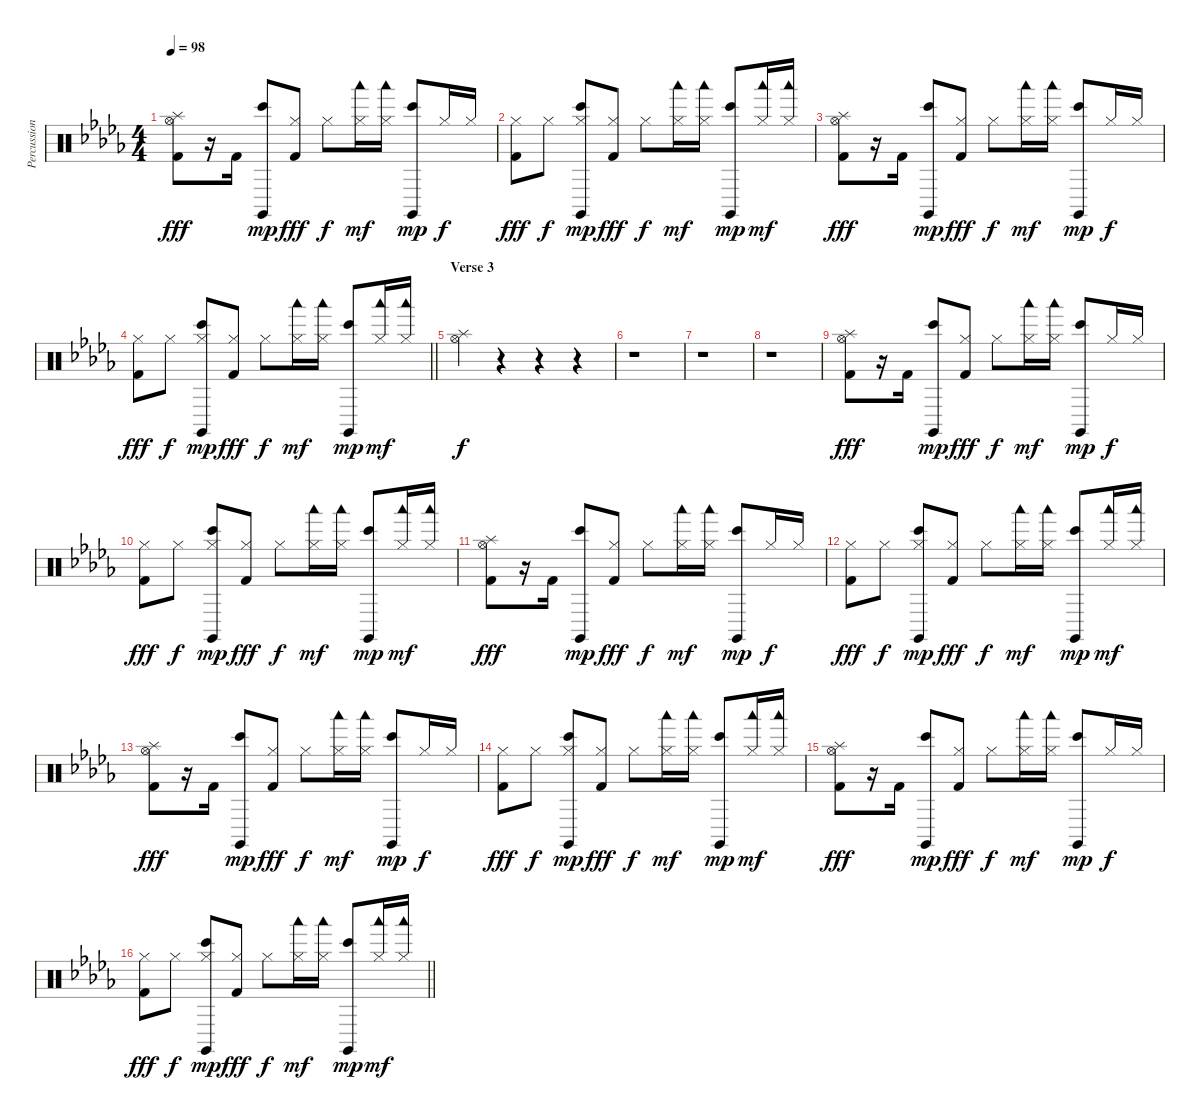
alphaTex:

\track ("Percussion" "Percussion") {instrument percussion}
\staff {score}
\articulation defaults
\ts (4 4)
\tempo 98
\clef neutral
\ks db
("Splash (hit)" "Hi-Hat (open)" "Kick (hit) 2").8{dy fff} r.16 "Kick (hit) 2".16 ("Claves (hit)" "Bongo High (hit)").8{dy mp} ("Hi-Hat (closed)" "Kick (hit) 2").8{dy fff} "Hi-Hat (closed)".8{dy f} ("Hi-Hat (closed)" "Woodblock low (hit)").16{dy mf} ("Hi-Hat (closed)" "Woodblock low (hit)").16 ("Claves (hit)" "Bongo High (hit)").8{dy mp} "Hi-Hat (closed)".16{dy f} "Hi-Hat (closed)".16 |
("Hi-Hat (closed)" "Kick (hit) 2").8{dy fff} "Hi-Hat (closed)".8{dy f} ("Hi-Hat (closed)" "Claves (hit)" "Bongo High (hit)").8{dy mp} ("Hi-Hat (closed)" "Kick (hit) 2").8{dy fff} "Hi-Hat (closed)".8{dy f} ("Hi-Hat (closed)" "Woodblock low (hit)").16{dy mf} ("Hi-Hat (closed)" "Woodblock low (hit)").16 ("Claves (hit)" "Bongo High (hit)").8{dy mp} ("Hi-Hat (closed)" "Woodblock low (hit)").16{dy mf} ("Hi-Hat (closed)" "Woodblock low (hit)").16 |
("Splash (hit)" "Hi-Hat (open)" "Kick (hit) 2").8{dy fff} r.16 "Kick (hit) 2".16 ("Claves (hit)" "Bongo High (hit)").8{dy mp} ("Hi-Hat (closed)" "Kick (hit) 2").8{dy fff} "Hi-Hat (closed)".8{dy f} ("Hi-Hat (closed)" "Woodblock low (hit)").16{dy mf} ("Hi-Hat (closed)" "Woodblock low (hit)").16 ("Claves (hit)" "Bongo High (hit)").8{dy mp} "Hi-Hat (closed)".16{dy f} "Hi-Hat (closed)".16 |
\barLineRight lightlight
("Hi-Hat (closed)" "Kick (hit) 2").8{dy fff} "Hi-Hat (closed)".8{dy f} ("Hi-Hat (closed)" "Claves (hit)" "Bongo High (hit)").8{dy mp} ("Hi-Hat (closed)" "Kick (hit) 2").8{dy fff} "Hi-Hat (closed)".8{dy f} ("Hi-Hat (closed)" "Woodblock low (hit)").16{dy mf} ("Hi-Hat (closed)" "Woodblock low (hit)").16 ("Claves (hit)" "Bongo High (hit)").8{dy mp} ("Hi-Hat (closed)" "Woodblock low (hit)").16{dy mf} ("Hi-Hat (closed)" "Woodblock low (hit)").16 |
\section ("" "Verse 3")
("Splash (hit)" "Hi-Hat (open)").4{dy f} r.4 r.4 r.4 |
r.1 |
r.1 |
r.1 |
("Splash (hit)" "Hi-Hat (open)" "Kick (hit) 2").8{dy fff} r.16 "Kick (hit) 2".16 ("Claves (hit)" "Bongo High (hit)").8{dy mp} ("Hi-Hat (closed)" "Kick (hit) 2").8{dy fff} "Hi-Hat (closed)".8{dy f} ("Hi-Hat (closed)" "Woodblock low (hit)").16{dy mf} ("Hi-Hat (closed)" "Woodblock low (hit)").16 ("Claves (hit)" "Bongo High (hit)").8{dy mp} "Hi-Hat (closed)".16{dy f} "Hi-Hat (closed)".16 |
("Hi-Hat (closed)" "Kick (hit) 2").8{dy fff} "Hi-Hat (closed)".8{dy f} ("Hi-Hat (closed)" "Claves (hit)" "Bongo High (hit)").8{dy mp} ("Hi-Hat (closed)" "Kick (hit) 2").8{dy fff} "Hi-Hat (closed)".8{dy f} ("Hi-Hat (closed)" "Woodblock low (hit)").16{dy mf} ("Hi-Hat (closed)" "Woodblock low (hit)").16 ("Claves (hit)" "Bongo High (hit)").8{dy mp} ("Hi-Hat (closed)" "Woodblock low (hit)").16{dy mf} ("Hi-Hat (closed)" "Woodblock low (hit)").16 |
("Splash (hit)" "Hi-Hat (open)" "Kick (hit) 2").8{dy fff} r.16 "Kick (hit) 2".16 ("Claves (hit)" "Bongo High (hit)").8{dy mp} ("Hi-Hat (closed)" "Kick (hit) 2").8{dy fff} "Hi-Hat (closed)".8{dy f} ("Hi-Hat (closed)" "Woodblock low (hit)").16{dy mf} ("Hi-Hat (closed)" "Woodblock low (hit)").16 ("Claves (hit)" "Bongo High (hit)").8{dy mp} "Hi-Hat (closed)".16{dy f} "Hi-Hat (closed)".16 |
("Hi-Hat (closed)" "Kick (hit) 2").8{dy fff} "Hi-Hat (closed)".8{dy f} ("Hi-Hat (closed)" "Claves (hit)" "Bongo High (hit)").8{dy mp} ("Hi-Hat (closed)" "Kick (hit) 2").8{dy fff} "Hi-Hat (closed)".8{dy f} ("Hi-Hat (closed)" "Woodblock low (hit)").16{dy mf} ("Hi-Hat (closed)" "Woodblock low (hit)").16 ("Claves (hit)" "Bongo High (hit)").8{dy mp} ("Hi-Hat (closed)" "Woodblock low (hit)").16{dy mf} ("Hi-Hat (closed)" "Woodblock low (hit)").16 |
("Splash (hit)" "Hi-Hat (open)" "Kick (hit) 2").8{dy fff} r.16 "Kick (hit) 2".16 ("Claves (hit)" "Bongo High (hit)").8{dy mp} ("Hi-Hat (closed)" "Kick (hit) 2").8{dy fff} "Hi-Hat (closed)".8{dy f} ("Hi-Hat (closed)" "Woodblock low (hit)").16{dy mf} ("Hi-Hat (closed)" "Woodblock low (hit)").16 ("Claves (hit)" "Bongo High (hit)").8{dy mp} "Hi-Hat (closed)".16{dy f} "Hi-Hat (closed)".16 |
("Hi-Hat (closed)" "Kick (hit) 2").8{dy fff} "Hi-Hat (closed)".8{dy f} ("Hi-Hat (closed)" "Claves (hit)" "Bongo High (hit)").8{dy mp} ("Hi-Hat (closed)" "Kick (hit) 2").8{dy fff} "Hi-Hat (closed)".8{dy f} ("Hi-Hat (closed)" "Woodblock low (hit)").16{dy mf} ("Hi-Hat (closed)" "Woodblock low (hit)").16 ("Claves (hit)" "Bongo High (hit)").8{dy mp} ("Hi-Hat (closed)" "Woodblock low (hit)").16{dy mf} ("Hi-Hat (closed)" "Woodblock low (hit)").16 |
("Splash (hit)" "Hi-Hat (open)" "Kick (hit) 2").8{dy fff} r.16 "Kick (hit) 2".16 ("Claves (hit)" "Bongo High (hit)").8{dy mp} ("Hi-Hat (closed)" "Kick (hit) 2").8{dy fff} "Hi-Hat (closed)".8{dy f} ("Hi-Hat (closed)" "Woodblock low (hit)").16{dy mf} ("Hi-Hat (closed)" "Woodblock low (hit)").16 ("Claves (hit)" "Bongo High (hit)").8{dy mp} "Hi-Hat (closed)".16{dy f} "Hi-Hat (closed)".16 |
\barLineRight lightlight
("Hi-Hat (closed)" "Kick (hit) 2").8{dy fff} "Hi-Hat (closed)".8{dy f} ("Hi-Hat (closed)" "Claves (hit)" "Bongo High (hit)").8{dy mp} ("Hi-Hat (closed)" "Kick (hit) 2").8{dy fff} "Hi-Hat (closed)".8{dy f} ("Hi-Hat (closed)" "Woodblock low (hit)").16{dy mf} ("Hi-Hat (closed)" "Woodblock low (hit)").16 ("Claves (hit)" "Bongo High (hit)").8{dy mp} ("Hi-Hat (closed)" "Woodblock low (hit)").16{dy mf} ("Hi-Hat (closed)" "Woodblock low (hit)").16
